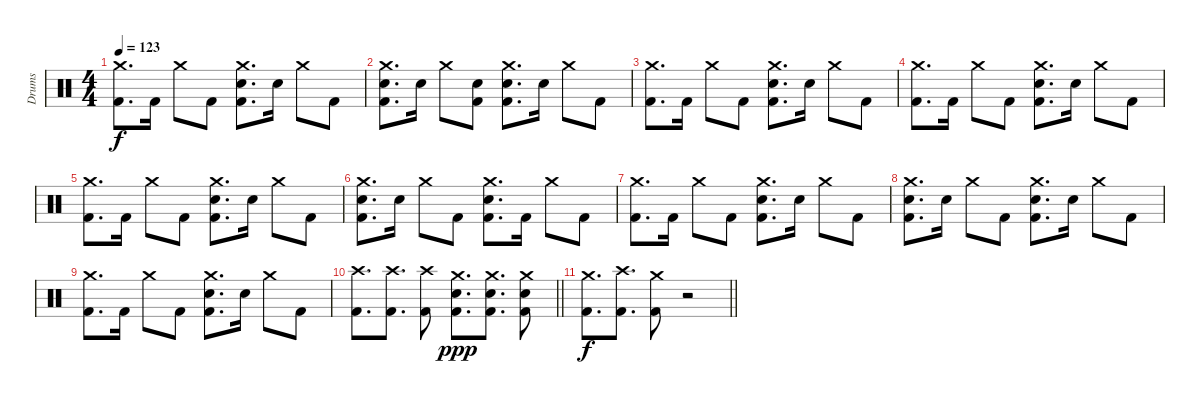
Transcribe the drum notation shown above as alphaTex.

\track ("Drums" "Drums") {instrument percussion}
\staff {score}
\articulation defaults
\ts (4 4)
\tempo 123
\clef neutral
\ks c
("Crash medium (hit)" "Kick (hit) 2").8{d dy f} "Kick (hit) 2".16 "Crash medium (hit)".8 "Kick (hit) 2".8 ("Crash medium (hit)" "Electric Snare (hit)" "Kick (hit) 2").8{d} "Electric Snare (hit)".16 "Crash medium (hit)".8 "Kick (hit) 2".8 |
("Crash medium (hit)" "Electric Snare (hit)" "Kick (hit) 2").8{d} "Electric Snare (hit)".16 "Crash medium (hit)".8 ("Electric Snare (hit)" "Kick (hit) 2").8 ("Crash medium (hit)" "Electric Snare (hit)" "Kick (hit) 2").8{d} "Electric Snare (hit)".16 "Crash medium (hit)".8 "Kick (hit) 2".8 |
("Crash medium (hit)" "Kick (hit) 2").8{d} "Kick (hit) 2".16 "Crash medium (hit)".8 "Kick (hit) 2".8 ("Crash medium (hit)" "Electric Snare (hit)" "Kick (hit) 2").8{d} "Electric Snare (hit)".16 "Crash medium (hit)".8 "Kick (hit) 2".8 |
("Crash medium (hit)" "Kick (hit) 2").8{d} "Kick (hit) 2".16 "Crash medium (hit)".8 "Kick (hit) 2".8 ("Crash medium (hit)" "Electric Snare (hit)" "Kick (hit) 2").8{d} "Electric Snare (hit)".16 "Crash medium (hit)".8 "Kick (hit) 2".8 |
("Crash medium (hit)" "Kick (hit) 2").8{d} "Kick (hit) 2".16 "Crash medium (hit)".8 "Kick (hit) 2".8 ("Crash medium (hit)" "Electric Snare (hit)" "Kick (hit) 2").8{d} "Electric Snare (hit)".16 "Crash medium (hit)".8 "Kick (hit) 2".8 |
("Crash medium (hit)" "Electric Snare (hit)" "Kick (hit) 2").8{d} "Electric Snare (hit)".16 "Crash medium (hit)".8 "Kick (hit) 2".8 ("Crash medium (hit)" "Electric Snare (hit)" "Kick (hit) 2").8{d} "Kick (hit) 2".16 "Crash medium (hit)".8 "Kick (hit) 2".8 |
("Crash medium (hit)" "Kick (hit) 2").8{d} "Kick (hit) 2".16 "Crash medium (hit)".8 "Kick (hit) 2".8 ("Crash medium (hit)" "Electric Snare (hit)" "Kick (hit) 2").8{d} "Electric Snare (hit)".16 "Crash medium (hit)".8 "Kick (hit) 2".8 |
("Crash medium (hit)" "Electric Snare (hit)" "Kick (hit) 2").8{d} "Electric Snare (hit)".16 "Crash medium (hit)".8 "Kick (hit) 2".8 ("Crash medium (hit)" "Electric Snare (hit)" "Kick (hit) 2").8{d} "Electric Snare (hit)".16 "Crash medium (hit)".8 "Kick (hit) 2".8 |
("Crash medium (hit)" "Kick (hit) 2").8{d} "Kick (hit) 2".16 "Crash medium (hit)".8 "Kick (hit) 2".8 ("Crash medium (hit)" "Electric Snare (hit)" "Kick (hit) 2").8{d} "Electric Snare (hit)".16 "Crash medium (hit)".8 "Kick (hit) 2".8 |
\barLineRight lightlight
("Crash high (hit)" "Kick (hit) 2").8{d} ("Crash high (hit)" "Kick (hit) 2").8{d} ("Crash high (hit)" "Kick (hit) 2").8 ("Crash medium (hit)" "Electric Snare (hit)" "Kick (hit) 2").8{d dy ppp} ("Crash medium (hit)" "Electric Snare (hit)" "Kick (hit) 2").8{d} ("Crash medium (hit)" "Electric Snare (hit)" "Kick (hit) 2").8 |
\barLineRight lightlight
("Crash medium (hit)" "Kick (hit) 2").8{d dy f} ("Crash high (hit)" "Kick (hit) 2").8{d} ("Crash medium (hit)" "Kick (hit) 2").8 r.2
